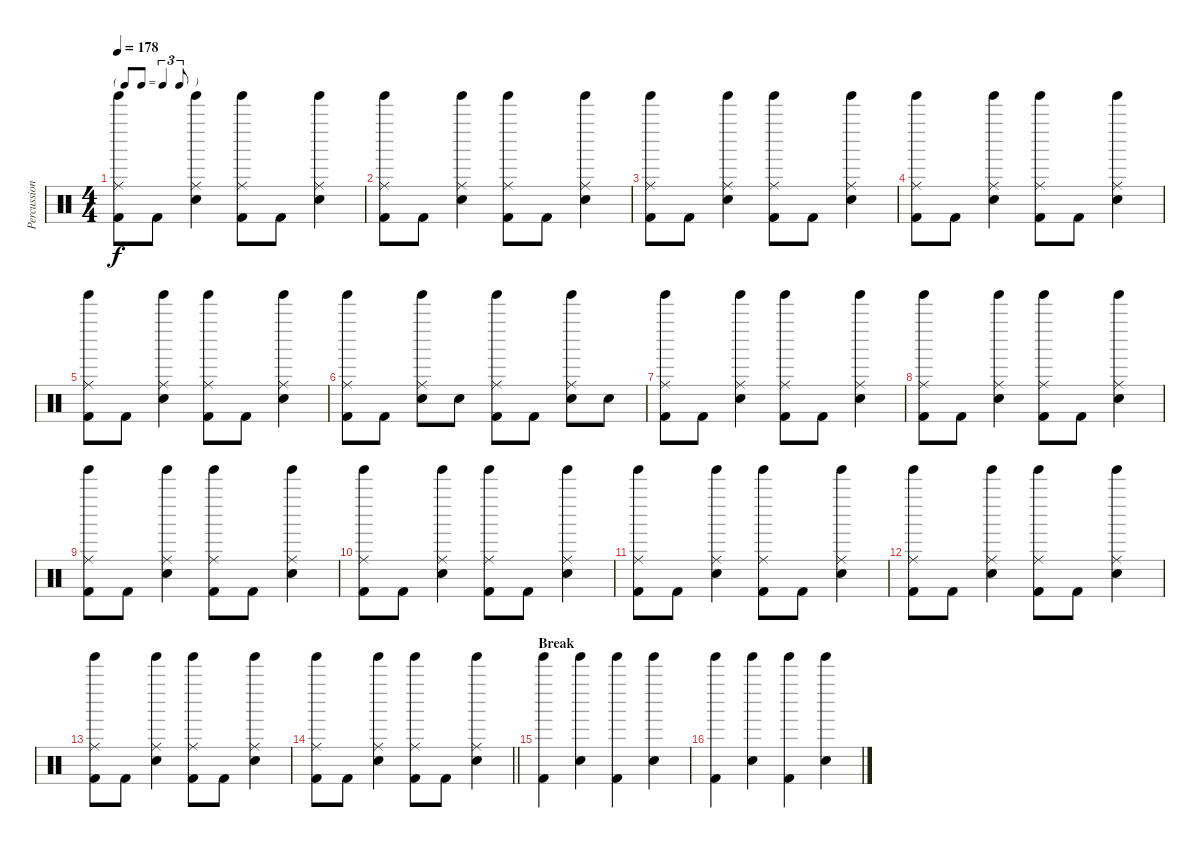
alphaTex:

\track ("Percussion" "Percussion") {instrument percussion}
\staff {score}
\articulation defaults
\ts (4 4)
\tf triplet8th
\tempo 178
\clef neutral
\ks c
("Ride (middle)" "Tinkle Bell (hit)" "Kick (hit) 2").8{dy f} "Kick (hit) 2".8 ("Ride (middle)" "Tinkle Bell (hit)" "Snare (hit) 2").4 ("Ride (middle)" "Tinkle Bell (hit)" "Kick (hit) 2").8 "Kick (hit) 2".8 ("Ride (middle)" "Tinkle Bell (hit)" "Snare (hit) 2").4 |
("Ride (middle)" "Tinkle Bell (hit)" "Kick (hit) 2").8 "Kick (hit) 2".8 ("Ride (middle)" "Tinkle Bell (hit)" "Snare (hit) 2").4 ("Ride (middle)" "Tinkle Bell (hit)" "Kick (hit) 2").8 "Kick (hit) 2".8 ("Ride (middle)" "Tinkle Bell (hit)" "Snare (hit) 2").4 |
("Ride (middle)" "Tinkle Bell (hit)" "Kick (hit) 2").8 "Kick (hit) 2".8 ("Ride (middle)" "Tinkle Bell (hit)" "Snare (hit) 2").4 ("Ride (middle)" "Tinkle Bell (hit)" "Kick (hit) 2").8 "Kick (hit) 2".8 ("Ride (middle)" "Tinkle Bell (hit)" "Snare (hit) 2").4 |
("Ride (middle)" "Tinkle Bell (hit)" "Kick (hit) 2").8 "Kick (hit) 2".8 ("Ride (middle)" "Tinkle Bell (hit)" "Snare (hit) 2").4 ("Ride (middle)" "Tinkle Bell (hit)" "Kick (hit) 2").8 "Kick (hit) 2".8 ("Ride (middle)" "Tinkle Bell (hit)" "Snare (hit) 2").4 |
("Ride (middle)" "Tinkle Bell (hit)" "Kick (hit) 2").8 "Kick (hit) 2".8 ("Ride (middle)" "Tinkle Bell (hit)" "Snare (hit) 2").4 ("Ride (middle)" "Tinkle Bell (hit)" "Kick (hit) 2").8 "Kick (hit) 2".8 ("Ride (middle)" "Tinkle Bell (hit)" "Snare (hit) 2").4 |
("Ride (middle)" "Tinkle Bell (hit)" "Kick (hit) 2").8 "Kick (hit) 2".8 ("Ride (middle)" "Tinkle Bell (hit)" "Snare (hit) 2").8 "Snare (hit) 2".8 ("Ride (middle)" "Tinkle Bell (hit)" "Kick (hit) 2").8 "Kick (hit) 2".8 ("Ride (middle)" "Tinkle Bell (hit)" "Snare (hit) 2").8 "Snare (hit) 2".8 |
("Ride (middle)" "Tinkle Bell (hit)" "Kick (hit) 2").8 "Kick (hit) 2".8 ("Ride (middle)" "Tinkle Bell (hit)" "Snare (hit) 2").4 ("Ride (middle)" "Tinkle Bell (hit)" "Kick (hit) 2").8 "Kick (hit) 2".8 ("Ride (middle)" "Tinkle Bell (hit)" "Snare (hit) 2").4 |
("Ride (middle)" "Tinkle Bell (hit)" "Kick (hit) 2").8 "Kick (hit) 2".8 ("Ride (middle)" "Tinkle Bell (hit)" "Snare (hit) 2").4 ("Ride (middle)" "Tinkle Bell (hit)" "Kick (hit) 2").8 "Kick (hit) 2".8 ("Ride (middle)" "Tinkle Bell (hit)" "Snare (hit) 2").4 |
("Ride (middle)" "Tinkle Bell (hit)" "Kick (hit) 2").8 "Kick (hit) 2".8 ("Ride (middle)" "Tinkle Bell (hit)" "Snare (hit) 2").4 ("Ride (middle)" "Tinkle Bell (hit)" "Kick (hit) 2").8 "Kick (hit) 2".8 ("Ride (middle)" "Tinkle Bell (hit)" "Snare (hit) 2").4 |
("Ride (middle)" "Tinkle Bell (hit)" "Kick (hit) 2").8 "Kick (hit) 2".8 ("Ride (middle)" "Tinkle Bell (hit)" "Snare (hit) 2").4 ("Ride (middle)" "Tinkle Bell (hit)" "Kick (hit) 2").8 "Kick (hit) 2".8 ("Ride (middle)" "Tinkle Bell (hit)" "Snare (hit) 2").4 |
("Ride (middle)" "Tinkle Bell (hit)" "Kick (hit) 2").8 "Kick (hit) 2".8 ("Ride (middle)" "Tinkle Bell (hit)" "Snare (hit) 2").4 ("Ride (middle)" "Tinkle Bell (hit)" "Kick (hit) 2").8 "Kick (hit) 2".8 ("Ride (middle)" "Tinkle Bell (hit)" "Snare (hit) 2").4 |
("Ride (middle)" "Tinkle Bell (hit)" "Kick (hit) 2").8 "Kick (hit) 2".8 ("Ride (middle)" "Tinkle Bell (hit)" "Snare (hit) 2").4 ("Ride (middle)" "Tinkle Bell (hit)" "Kick (hit) 2").8 "Kick (hit) 2".8 ("Ride (middle)" "Tinkle Bell (hit)" "Snare (hit) 2").4 |
("Ride (middle)" "Tinkle Bell (hit)" "Kick (hit) 2").8 "Kick (hit) 2".8 ("Ride (middle)" "Tinkle Bell (hit)" "Snare (hit) 2").4 ("Ride (middle)" "Tinkle Bell (hit)" "Kick (hit) 2").8 "Kick (hit) 2".8 ("Ride (middle)" "Tinkle Bell (hit)" "Snare (hit) 2").4 |
\barLineRight lightlight
("Ride (middle)" "Tinkle Bell (hit)" "Kick (hit) 2").8 "Kick (hit) 2".8 ("Ride (middle)" "Tinkle Bell (hit)" "Snare (hit) 2").4 ("Ride (middle)" "Tinkle Bell (hit)" "Kick (hit) 2").8 "Kick (hit) 2".8 ("Ride (middle)" "Tinkle Bell (hit)" "Snare (hit) 2").4 |
\section ("" "Break")
("Tinkle Bell (hit)" "Kick (hit) 2").4 ("Tinkle Bell (hit)" "Snare (hit) 2").4 ("Tinkle Bell (hit)" "Kick (hit) 2").4 ("Tinkle Bell (hit)" "Snare (hit) 2").4 |
("Tinkle Bell (hit)" "Kick (hit) 2").4 ("Tinkle Bell (hit)" "Snare (hit) 2").4 ("Tinkle Bell (hit)" "Kick (hit) 2").4 ("Tinkle Bell (hit)" "Snare (hit) 2").4
